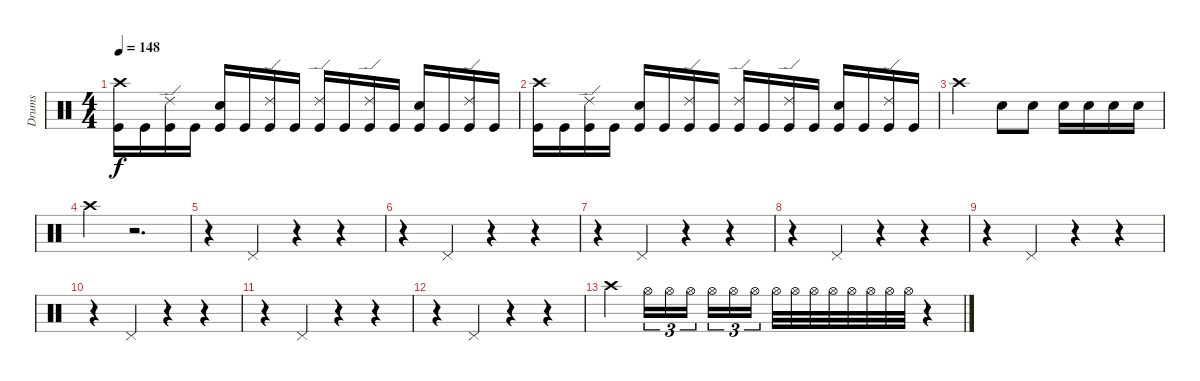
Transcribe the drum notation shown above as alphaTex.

\track ("Drums" "Drums") {instrument percussion}
\staff {score}
\articulation defaults
\ts (4 4)
\tempo 148
\clef neutral
\ks c
("Crash high (hit)" "Kick (hit)").16{dy f} "Kick (hit)".16 ("Ride (edge) 2" "Kick (hit)").16 "Kick (hit)".16 ("Snare (hit) 2" "Kick (hit)").16 "Kick (hit)".16 ("Ride (edge) 2" "Kick (hit)").16 "Kick (hit)".16 ("Ride (edge) 2" "Kick (hit)").16 "Kick (hit)".16 ("Ride (edge) 2" "Kick (hit)").16 "Kick (hit)".16 ("Snare (hit) 2" "Kick (hit)").16 "Kick (hit)".16 ("Ride (edge) 2" "Kick (hit)").16 "Kick (hit)".16 |
("Crash high (hit)" "Kick (hit)").16 "Kick (hit)".16 ("Ride (edge) 2" "Kick (hit)").16 "Kick (hit)".16 ("Snare (hit) 2" "Kick (hit)").16 "Kick (hit)".16 ("Ride (edge) 2" "Kick (hit)").16 "Kick (hit)".16 ("Ride (edge) 2" "Kick (hit)").16 "Kick (hit)".16 ("Ride (edge) 2" "Kick (hit)").16 "Kick (hit)".16 ("Snare (hit) 2" "Kick (hit)").16 "Kick (hit)".16 ("Ride (edge) 2" "Kick (hit)").16 "Kick (hit)".16 |
"Crash high (hit)".2 "Snare (hit) 2".8 "Snare (hit) 2".8 "Snare (hit) 2".16 "Snare (hit) 2".16 "Snare (hit) 2".16 "Snare (hit) 2".16 |
"Crash high (hit)".4 r.2{d} |
r.4 "Pedal Hi-Hat (hit)".4 r.4 r.4 |
r.4 "Pedal Hi-Hat (hit)".4 r.4 r.4 |
r.4 "Pedal Hi-Hat (hit)".4 r.4 r.4 |
r.4 "Pedal Hi-Hat (hit)".4 r.4 r.4 |
r.4 "Pedal Hi-Hat (hit)".4 r.4 r.4 |
r.4 "Pedal Hi-Hat (hit)".4 r.4 r.4 |
r.4 "Pedal Hi-Hat (hit)".4 r.4 r.4 |
r.4 "Pedal Hi-Hat (hit)".4 r.4 r.4 |
"Crash high (hit)".4 "Hi-Hat (open)".16{tu (3 2)} "Hi-Hat (open)".16{tu (3 2)} "Hi-Hat (open)".16{tu (3 2)} "Hi-Hat (open)".16{tu (3 2)} "Hi-Hat (open)".16{tu (3 2)} "Hi-Hat (open)".16{tu (3 2)} "Hi-Hat (open)".32 "Hi-Hat (open)".32 "Hi-Hat (open)".32 "Hi-Hat (open)".32 "Hi-Hat (open)".32 "Hi-Hat (open)".32 "Hi-Hat (open)".32 "Hi-Hat (open)".32 r.4
